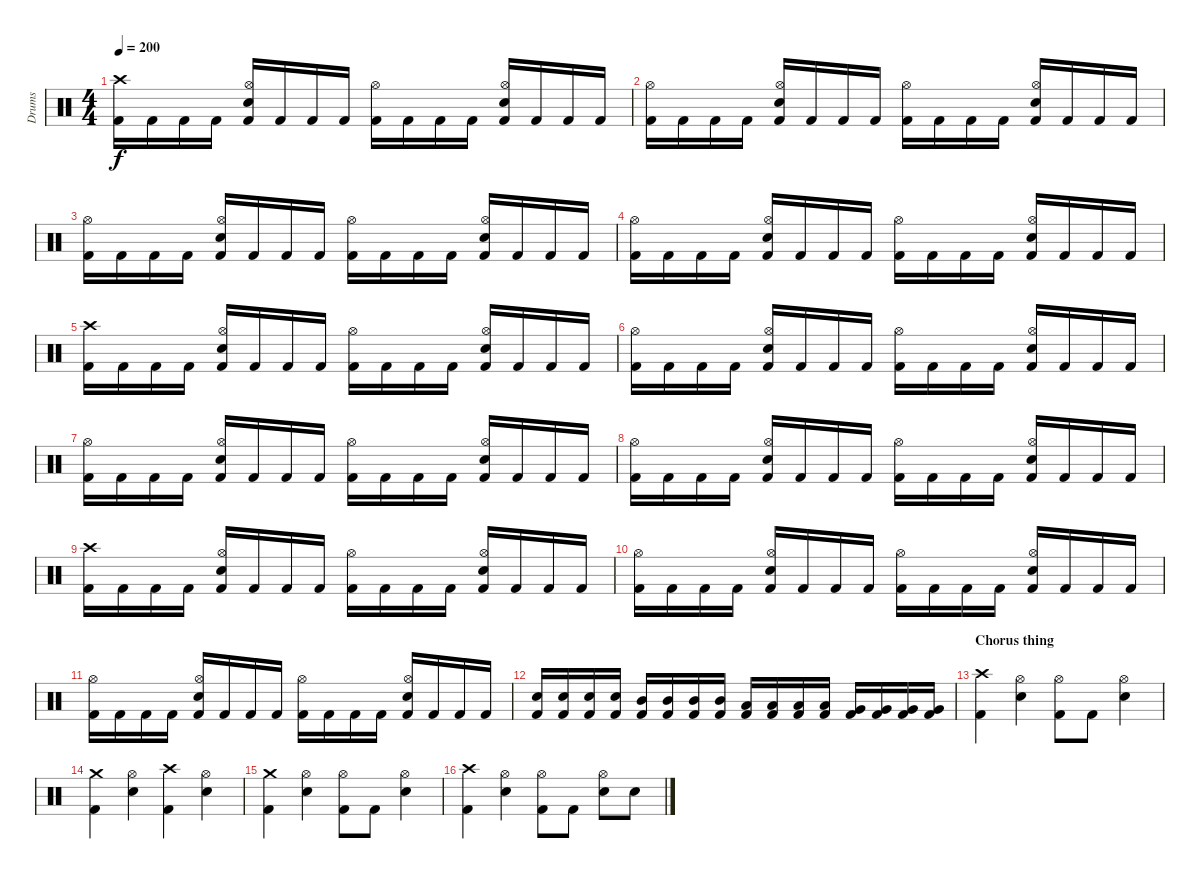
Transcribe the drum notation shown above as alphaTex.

\track ("Drums" "Drums") {instrument percussion}
\staff {score}
\articulation defaults
\ts (4 4)
\tempo 200
\clef neutral
\ks c
("Crash high (hit)" "Kick (hit) 2").16{dy f} "Kick (hit) 2".16 "Kick (hit) 2".16 "Kick (hit) 2".16 ("Hi-Hat (open)" "Electric Snare (hit)" "Kick (hit) 2").16 "Kick (hit) 2".16 "Kick (hit) 2".16 "Kick (hit) 2".16 ("Hi-Hat (open)" "Kick (hit) 2").16 "Kick (hit) 2".16 "Kick (hit) 2".16 "Kick (hit) 2".16 ("Hi-Hat (open)" "Electric Snare (hit)" "Kick (hit) 2").16 "Kick (hit) 2".16 "Kick (hit) 2".16 "Kick (hit) 2".16 |
("Hi-Hat (open)" "Kick (hit) 2").16 "Kick (hit) 2".16 "Kick (hit) 2".16 "Kick (hit) 2".16 ("Hi-Hat (open)" "Electric Snare (hit)" "Kick (hit) 2").16 "Kick (hit) 2".16 "Kick (hit) 2".16 "Kick (hit) 2".16 ("Hi-Hat (open)" "Kick (hit) 2").16 "Kick (hit) 2".16 "Kick (hit) 2".16 "Kick (hit) 2".16 ("Hi-Hat (open)" "Electric Snare (hit)" "Kick (hit) 2").16 "Kick (hit) 2".16 "Kick (hit) 2".16 "Kick (hit) 2".16 |
("Hi-Hat (open)" "Kick (hit) 2").16 "Kick (hit) 2".16 "Kick (hit) 2".16 "Kick (hit) 2".16 ("Hi-Hat (open)" "Electric Snare (hit)" "Kick (hit) 2").16 "Kick (hit) 2".16 "Kick (hit) 2".16 "Kick (hit) 2".16 ("Hi-Hat (open)" "Kick (hit) 2").16 "Kick (hit) 2".16 "Kick (hit) 2".16 "Kick (hit) 2".16 ("Hi-Hat (open)" "Electric Snare (hit)" "Kick (hit) 2").16 "Kick (hit) 2".16 "Kick (hit) 2".16 "Kick (hit) 2".16 |
("Hi-Hat (open)" "Kick (hit) 2").16 "Kick (hit) 2".16 "Kick (hit) 2".16 "Kick (hit) 2".16 ("Hi-Hat (open)" "Electric Snare (hit)" "Kick (hit) 2").16 "Kick (hit) 2".16 "Kick (hit) 2".16 "Kick (hit) 2".16 ("Hi-Hat (open)" "Kick (hit) 2").16 "Kick (hit) 2".16 "Kick (hit) 2".16 "Kick (hit) 2".16 ("Hi-Hat (open)" "Electric Snare (hit)" "Kick (hit) 2").16 "Kick (hit) 2".16 "Kick (hit) 2".16 "Kick (hit) 2".16 |
("Crash high (hit)" "Kick (hit) 2").16 "Kick (hit) 2".16 "Kick (hit) 2".16 "Kick (hit) 2".16 ("Hi-Hat (open)" "Electric Snare (hit)" "Kick (hit) 2").16 "Kick (hit) 2".16 "Kick (hit) 2".16 "Kick (hit) 2".16 ("Hi-Hat (open)" "Kick (hit) 2").16 "Kick (hit) 2".16 "Kick (hit) 2".16 "Kick (hit) 2".16 ("Hi-Hat (open)" "Electric Snare (hit)" "Kick (hit) 2").16 "Kick (hit) 2".16 "Kick (hit) 2".16 "Kick (hit) 2".16 |
("Hi-Hat (open)" "Kick (hit) 2").16 "Kick (hit) 2".16 "Kick (hit) 2".16 "Kick (hit) 2".16 ("Hi-Hat (open)" "Electric Snare (hit)" "Kick (hit) 2").16 "Kick (hit) 2".16 "Kick (hit) 2".16 "Kick (hit) 2".16 ("Hi-Hat (open)" "Kick (hit) 2").16 "Kick (hit) 2".16 "Kick (hit) 2".16 "Kick (hit) 2".16 ("Hi-Hat (open)" "Electric Snare (hit)" "Kick (hit) 2").16 "Kick (hit) 2".16 "Kick (hit) 2".16 "Kick (hit) 2".16 |
("Hi-Hat (open)" "Kick (hit) 2").16 "Kick (hit) 2".16 "Kick (hit) 2".16 "Kick (hit) 2".16 ("Hi-Hat (open)" "Electric Snare (hit)" "Kick (hit) 2").16 "Kick (hit) 2".16 "Kick (hit) 2".16 "Kick (hit) 2".16 ("Hi-Hat (open)" "Kick (hit) 2").16 "Kick (hit) 2".16 "Kick (hit) 2".16 "Kick (hit) 2".16 ("Hi-Hat (open)" "Electric Snare (hit)" "Kick (hit) 2").16 "Kick (hit) 2".16 "Kick (hit) 2".16 "Kick (hit) 2".16 |
("Hi-Hat (open)" "Kick (hit) 2").16 "Kick (hit) 2".16 "Kick (hit) 2".16 "Kick (hit) 2".16 ("Hi-Hat (open)" "Electric Snare (hit)" "Kick (hit) 2").16 "Kick (hit) 2".16 "Kick (hit) 2".16 "Kick (hit) 2".16 ("Hi-Hat (open)" "Kick (hit) 2").16 "Kick (hit) 2".16 "Kick (hit) 2".16 "Kick (hit) 2".16 ("Hi-Hat (open)" "Electric Snare (hit)" "Kick (hit) 2").16 "Kick (hit) 2".16 "Kick (hit) 2".16 "Kick (hit) 2".16 |
("Crash high (hit)" "Kick (hit) 2").16 "Kick (hit) 2".16 "Kick (hit) 2".16 "Kick (hit) 2".16 ("Hi-Hat (open)" "Electric Snare (hit)" "Kick (hit) 2").16 "Kick (hit) 2".16 "Kick (hit) 2".16 "Kick (hit) 2".16 ("Hi-Hat (open)" "Kick (hit) 2").16 "Kick (hit) 2".16 "Kick (hit) 2".16 "Kick (hit) 2".16 ("Hi-Hat (open)" "Electric Snare (hit)" "Kick (hit) 2").16 "Kick (hit) 2".16 "Kick (hit) 2".16 "Kick (hit) 2".16 |
("Hi-Hat (open)" "Kick (hit) 2").16 "Kick (hit) 2".16 "Kick (hit) 2".16 "Kick (hit) 2".16 ("Hi-Hat (open)" "Electric Snare (hit)" "Kick (hit) 2").16 "Kick (hit) 2".16 "Kick (hit) 2".16 "Kick (hit) 2".16 ("Hi-Hat (open)" "Kick (hit) 2").16 "Kick (hit) 2".16 "Kick (hit) 2".16 "Kick (hit) 2".16 ("Hi-Hat (open)" "Electric Snare (hit)" "Kick (hit) 2").16 "Kick (hit) 2".16 "Kick (hit) 2".16 "Kick (hit) 2".16 |
("Hi-Hat (open)" "Kick (hit) 2").16 "Kick (hit) 2".16 "Kick (hit) 2".16 "Kick (hit) 2".16 ("Hi-Hat (open)" "Electric Snare (hit)" "Kick (hit) 2").16 "Kick (hit) 2".16 "Kick (hit) 2".16 "Kick (hit) 2".16 ("Hi-Hat (open)" "Kick (hit) 2").16 "Kick (hit) 2".16 "Kick (hit) 2".16 "Kick (hit) 2".16 ("Hi-Hat (open)" "Electric Snare (hit)" "Kick (hit) 2").16 "Kick (hit) 2".16 "Kick (hit) 2".16 "Kick (hit) 2".16 |
("Electric Snare (hit)" "Kick (hit) 2").16 ("Electric Snare (hit)" "Kick (hit) 2").16 ("Electric Snare (hit)" "Kick (hit) 2").16 ("Electric Snare (hit)" "Kick (hit) 2").16 ("Mid Tom (hit)" "Kick (hit) 2").16 ("Mid Tom (hit)" "Kick (hit) 2").16 ("Mid Tom (hit)" "Kick (hit) 2").16 ("Mid Tom (hit)" "Kick (hit) 2").16 ("Low Tom (hit)" "Kick (hit) 2").16 ("Low Tom (hit)" "Kick (hit) 2").16 ("Low Tom (hit)" "Kick (hit) 2").16 ("Low Tom (hit)" "Kick (hit) 2").16 ("Very Low Tom (hit)" "Kick (hit) 2").16 ("Very Low Tom (hit)" "Kick (hit) 2").16 ("Very Low Tom (hit)" "Kick (hit) 2").16 ("Very Low Tom (hit)" "Kick (hit) 2").16 |
\section ("" "Chorus thing")
("Crash high (hit)" "Kick (hit) 2").4 ("Hi-Hat (open)" "Electric Snare (hit)").4 ("Hi-Hat (open)" "Kick (hit) 2").8 "Kick (hit) 2".8 ("Hi-Hat (open)" "Electric Snare (hit)").4 |
("Crash medium (hit)" "Kick (hit) 2").4 ("Hi-Hat (open)" "Electric Snare (hit)").4 ("Crash high (hit)" "Kick (hit) 2").4 ("Hi-Hat (open)" "Electric Snare (hit)").4 |
("Crash medium (hit)" "Kick (hit) 2").4 ("Hi-Hat (open)" "Electric Snare (hit)").4 ("Hi-Hat (open)" "Kick (hit) 2").8 "Kick (hit) 2".8 ("Hi-Hat (open)" "Electric Snare (hit)").4 |
("Crash high (hit)" "Kick (hit) 2").4 ("Hi-Hat (open)" "Electric Snare (hit)").4 ("Hi-Hat (open)" "Kick (hit) 2").8 "Kick (hit) 2".8 ("Hi-Hat (open)" "Electric Snare (hit)").8 "Electric Snare (hit)".8
